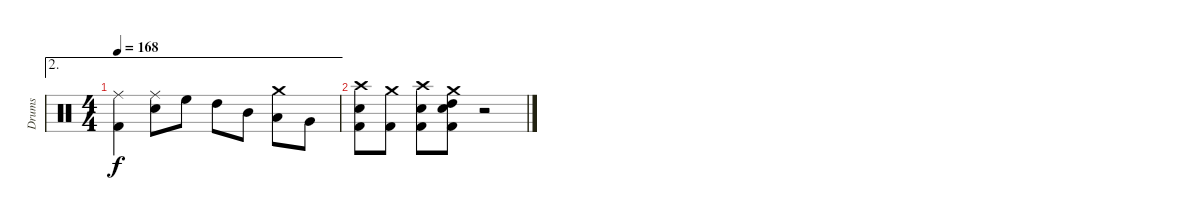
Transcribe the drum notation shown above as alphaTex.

\track ("Drums" "Drums") {instrument percussion}
\staff {score}
\articulation defaults
\ae 2
\ts (4 4)
\tempo 168
\clef neutral
\ks c
("Ride (middle)" "Kick (hit) 2").4{dy f} ("Ride (middle)" "Electric Snare (hit)").8 "High Floor Tom (hit)".8 "High Tom (hit)".8 "Mid Tom (hit)".8 ("Crash medium (hit)" "Low Tom (hit)").8 "Very Low Tom (hit)".8 |
("Crash high (hit)" "Electric Snare (hit)" "Kick (hit) 2").8 ("Crash medium (hit)" "Kick (hit) 2").8 ("Crash high (hit)" "Electric Snare (hit)" "Kick (hit) 2").8 ("Crash medium (hit)" "High Tom (hit)" "Electric Snare (hit)" "Kick (hit) 2").8 r.2
